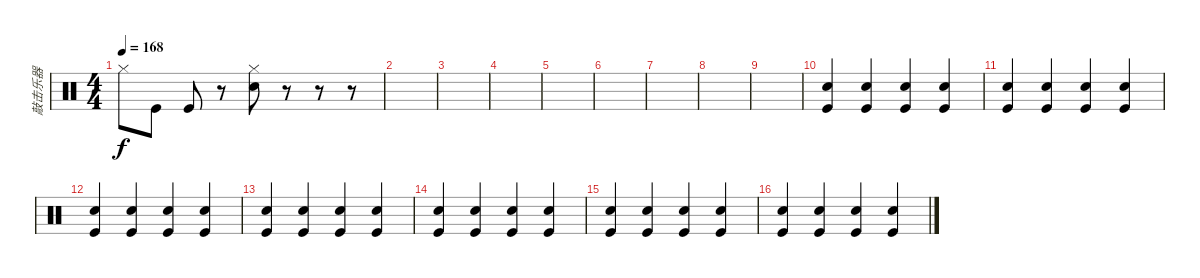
\track ("敲击乐器" "敲击乐器") {instrument percussion}
\staff {score}
\articulation defaults
\ts (4 4)
\tempo 168
\clef neutral
\ks c "Hi-Hat (closed)".8{dy f} "Kick (hit)".8 "Kick (hit)".8
r.8 ("Hi-Hat (closed)" "Snare (hit) 2").8 r.8 r.8 r.8 |
|
|
|
|
|
|
|
|
("Snare (hit) 2" "Kick (hit)").4 ("Snare (hit) 2" "Kick (hit)").4 ("Snare (hit) 2" "Kick (hit)").4 ("Snare (hit) 2" "Kick (hit)").4 |
("Snare (hit) 2" "Kick (hit)").4 ("Snare (hit) 2" "Kick (hit)").4 ("Snare (hit) 2" "Kick (hit)").4 ("Snare (hit) 2" "Kick (hit)").4 |
("Snare (hit) 2" "Kick (hit)").4 ("Snare (hit) 2" "Kick (hit)").4 ("Snare (hit) 2" "Kick (hit)").4 ("Snare (hit) 2" "Kick (hit)").4 |
("Snare (hit) 2" "Kick (hit)").4 ("Snare (hit) 2" "Kick (hit)").4 ("Snare (hit) 2" "Kick (hit)").4 ("Snare (hit) 2" "Kick (hit)").4 |
("Snare (hit) 2" "Kick (hit)").4 ("Snare (hit) 2" "Kick (hit)").4 ("Snare (hit) 2" "Kick (hit)").4 ("Snare (hit) 2" "Kick (hit)").4 |
("Snare (hit) 2" "Kick (hit)").4 ("Snare (hit) 2" "Kick (hit)").4 ("Snare (hit) 2" "Kick (hit)").4 ("Snare (hit) 2" "Kick (hit)").4 |
("Snare (hit) 2" "Kick (hit)").4 ("Snare (hit) 2" "Kick (hit)").4 ("Snare (hit) 2" "Kick (hit)").4 ("Snare (hit) 2" "Kick (hit)").4
